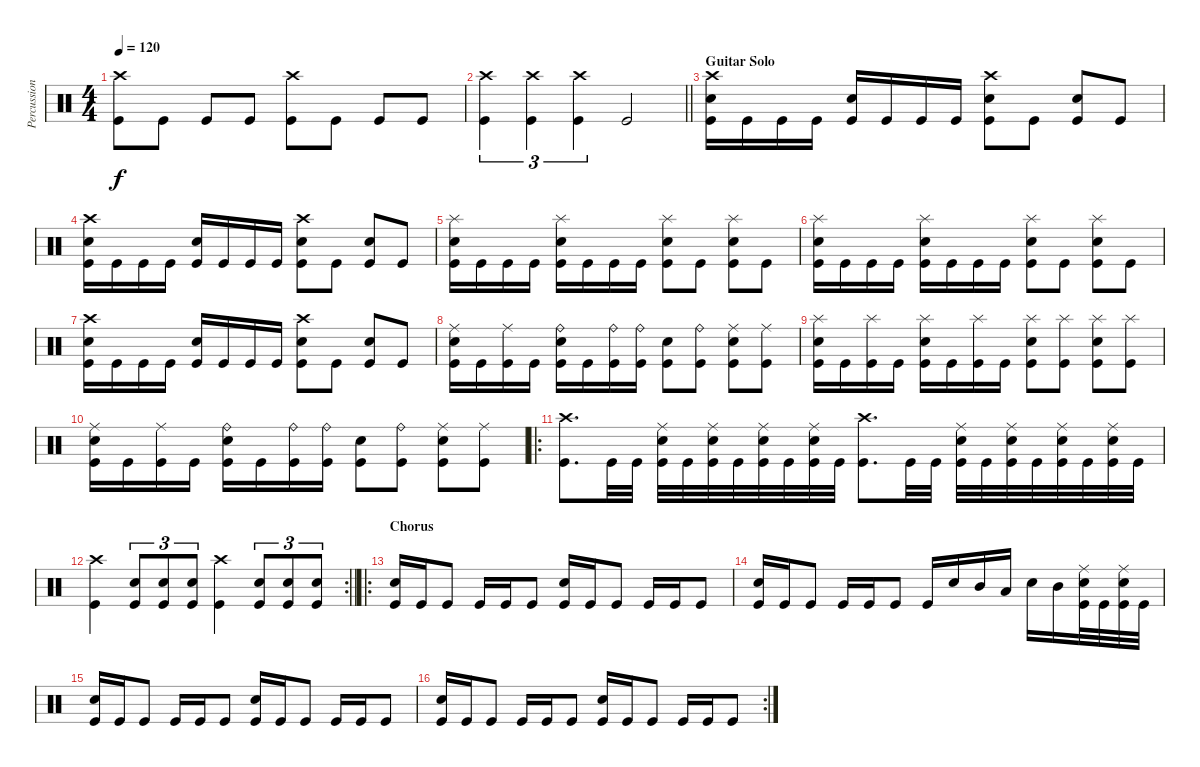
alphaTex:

\track ("Percussion" "Percussion") {instrument percussion}
\staff {score}
\articulation defaults
\ts (4 4)
\tempo 120
\clef neutral
\ks c
("Crash high (hit)" "Kick (hit)").8{dy f} "Kick (hit)".8 "Kick (hit)".8 "Kick (hit)".8 ("Crash high (hit)" "Kick (hit)").8 "Kick (hit)".8 "Kick (hit)".8 "Kick (hit)".8 |
\barLineRight lightlight
("Crash high (hit)" "Kick (hit)").4{tu (3 2)} ("Crash high (hit)" "Kick (hit)").4{tu (3 2)} ("Crash high (hit)" "Kick (hit)").4{tu (3 2)} "Kick (hit)".2 |
\section ("" "Guitar Solo")
("Crash high (hit)" "Electric Snare (hit)" "Kick (hit)").16 "Kick (hit)".16 "Kick (hit)".16 "Kick (hit)".16 ("Electric Snare (hit)" "Kick (hit)").16 "Kick (hit)".16 "Kick (hit)".16 "Kick (hit)".16 ("Crash high (hit)" "Electric Snare (hit)" "Kick (hit)").8 "Kick (hit)".8 ("Electric Snare (hit)" "Kick (hit)").8 "Kick (hit)".8 |
("Crash high (hit)" "Electric Snare (hit)" "Kick (hit)").16 "Kick (hit)".16 "Kick (hit)".16 "Kick (hit)".16 ("Electric Snare (hit)" "Kick (hit)").16 "Kick (hit)".16 "Kick (hit)".16 "Kick (hit)".16 ("Crash high (hit)" "Electric Snare (hit)" "Kick (hit)").8 "Kick (hit)".8 ("Electric Snare (hit)" "Kick (hit)").8 "Kick (hit)".8 |
("Splash (hit)" "Electric Snare (hit)" "Kick (hit)").16 "Kick (hit)".16 "Kick (hit)".16 "Kick (hit)".16 ("Splash (hit)" "Electric Snare (hit)" "Kick (hit)").16 "Kick (hit)".16 "Kick (hit)".16 "Kick (hit)".16 ("Splash (hit)" "Electric Snare (hit)" "Kick (hit)").8 "Kick (hit)".8 ("Splash (hit)" "Electric Snare (hit)" "Kick (hit)").8 "Kick (hit)".8 |
("Splash (hit)" "Electric Snare (hit)" "Kick (hit)").16 "Kick (hit)".16 "Kick (hit)".16 "Kick (hit)".16 ("Splash (hit)" "Electric Snare (hit)" "Kick (hit)").16 "Kick (hit)".16 "Kick (hit)".16 "Kick (hit)".16 ("Splash (hit)" "Electric Snare (hit)" "Kick (hit)").8 "Kick (hit)".8 ("Splash (hit)" "Electric Snare (hit)" "Kick (hit)").8 "Kick (hit)".8 |
("Crash high (hit)" "Electric Snare (hit)" "Kick (hit)").16 "Kick (hit)".16 "Kick (hit)".16 "Kick (hit)".16 ("Electric Snare (hit)" "Kick (hit)").16 "Kick (hit)".16 "Kick (hit)".16 "Kick (hit)".16 ("Crash high (hit)" "Electric Snare (hit)" "Kick (hit)").8 "Kick (hit)".8 ("Electric Snare (hit)" "Kick (hit)").8 "Kick (hit)".8 |
("Ride (middle)" "Electric Snare (hit)" "Kick (hit)").16 "Kick (hit)".16 ("Ride (middle)" "Kick (hit)").16 "Kick (hit)".16 ("Ride (bell)" "Electric Snare (hit)" "Kick (hit)").16 "Kick (hit)".16 ("Ride (bell)" "Kick (hit)").16 ("Ride (bell)" "Kick (hit)").16 ("Electric Snare (hit)" "Kick (hit)").8 ("Ride (bell)" "Kick (hit)").8 ("Ride (middle)" "Electric Snare (hit)" "Kick (hit)").8 ("Ride (middle)" "Kick (hit)").8 |
("Splash (hit)" "Electric Snare (hit)" "Kick (hit)").16 "Kick (hit)".16 ("Splash (hit)" "Kick (hit)").16 "Kick (hit)".16 ("Splash (hit)" "Electric Snare (hit)" "Kick (hit)").16 "Kick (hit)".16 ("Splash (hit)" "Kick (hit)").16 "Kick (hit)".16 ("Splash (hit)" "Electric Snare (hit)" "Kick (hit)").8 ("Splash (hit)" "Kick (hit)").8 ("Splash (hit)" "Electric Snare (hit)" "Kick (hit)").8 ("Splash (hit)" "Kick (hit)").8 |
("Ride (middle)" "Electric Snare (hit)" "Kick (hit)").16 "Kick (hit)".16 ("Ride (middle)" "Kick (hit)").16 "Kick (hit)".16 ("Ride (bell)" "Electric Snare (hit)" "Kick (hit)").16 "Kick (hit)".16 ("Ride (bell)" "Kick (hit)").16 ("Ride (bell)" "Kick (hit)").16 ("Electric Snare (hit)" "Kick (hit)").8 ("Ride (bell)" "Kick (hit)").8 ("Ride (middle)" "Electric Snare (hit)" "Kick (hit)").8 ("Ride (middle)" "Kick (hit)").8 |
\ro
("Crash high (hit)" "Kick (hit)").8{d} "Kick (hit)".32 "Kick (hit)".32 ("Ride (middle)" "Electric Snare (hit)" "Kick (hit)").32 "Kick (hit)".32 ("Ride (middle)" "Electric Snare (hit)" "Kick (hit)").32 "Kick (hit)".32 ("Ride (middle)" "Electric Snare (hit)" "Kick (hit)").32 "Kick (hit)".32 ("Ride (middle)" "Electric Snare (hit)" "Kick (hit)").32 "Kick (hit)".32 ("Crash high (hit)" "Kick (hit)").8{d} "Kick (hit)".32 "Kick (hit)".32 ("Ride (middle)" "Electric Snare (hit)" "Kick (hit)").32 "Kick (hit)".32 ("Ride (middle)" "Electric Snare (hit)" "Kick (hit)").32 "Kick (hit)".32 ("Ride (middle)" "Electric Snare (hit)" "Kick (hit)").32 "Kick (hit)".32 ("Ride (middle)" "Electric Snare (hit)" "Kick (hit)").32 "Kick (hit)".32 |
\rc 2
\barLineRight lightlight
("Crash high (hit)" "Kick (hit)").4 ("Electric Snare (hit)" "Kick (hit)").8{tu (3 2)} ("Electric Snare (hit)" "Kick (hit)").8{tu (3 2)} ("Electric Snare (hit)" "Kick (hit)").8{tu (3 2)} ("Crash high (hit)" "Kick (hit)").4 ("Electric Snare (hit)" "Kick (hit)").8{tu (3 2)} ("Electric Snare (hit)" "Kick (hit)").8{tu (3 2)} ("Electric Snare (hit)" "Kick (hit)").8{tu (3 2)} |
\ro
\section ("" "Chorus")
("Electric Snare (hit)" "Kick (hit)").16 "Kick (hit)".16 "Kick (hit)".8 "Kick (hit)".16 "Kick (hit)".16 "Kick (hit)".8 ("Electric Snare (hit)" "Kick (hit)").16 "Kick (hit)".16 "Kick (hit)".8 "Kick (hit)".16 "Kick (hit)".16 "Kick (hit)".8 |
("Electric Snare (hit)" "Kick (hit)").16 "Kick (hit)".16 "Kick (hit)".8 "Kick (hit)".16 "Kick (hit)".16 "Kick (hit)".8 "Kick (hit)".16 "Electric Snare (hit)".16 "Mid Tom (hit)".16 "Low Tom (hit)".16 "Electric Snare (hit)".16 "Mid Tom (hit)".16 ("Ride (middle)" "Electric Snare (hit)" "Kick (hit)").32 "Kick (hit)".32 ("Ride (middle)" "Electric Snare (hit)" "Kick (hit)").32 "Kick (hit)".32 |
("Electric Snare (hit)" "Kick (hit)").16 "Kick (hit)".16 "Kick (hit)".8 "Kick (hit)".16 "Kick (hit)".16 "Kick (hit)".8 ("Electric Snare (hit)" "Kick (hit)").16 "Kick (hit)".16 "Kick (hit)".8 "Kick (hit)".16 "Kick (hit)".16 "Kick (hit)".8 |
\rc 2
("Electric Snare (hit)" "Kick (hit)").16 "Kick (hit)".16 "Kick (hit)".8 "Kick (hit)".16 "Kick (hit)".16 "Kick (hit)".8 ("Electric Snare (hit)" "Kick (hit)").16 "Kick (hit)".16 "Kick (hit)".8 "Kick (hit)".16 "Kick (hit)".16 "Kick (hit)".8
